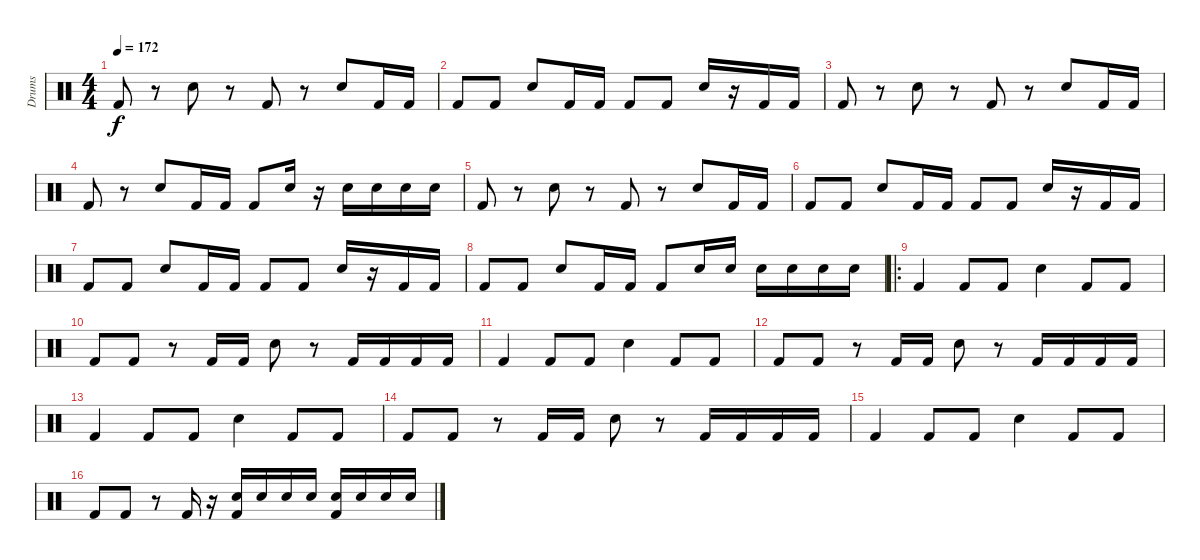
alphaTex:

\track ("Drums" "Drums") {instrument percussion}
\staff {score}
\articulation defaults
\ts (4 4)
\tempo 172
\clef neutral
\ks c "Kick (hit) 2".8{dy f}
r.8 "Snare (hit) 2".8 r.8 "Kick (hit) 2".8 r.8 "Snare (hit) 2".8 "Kick (hit) 2".16 "Kick (hit) 2".16 |
"Kick (hit) 2".8 "Kick (hit) 2".8 "Snare (hit) 2".8 "Kick (hit) 2".16 "Kick (hit) 2".16 "Kick (hit) 2".8 "Kick (hit) 2".8 "Snare (hit) 2".16 r.16 "Kick (hit) 2".16 "Kick (hit) 2".16 |
"Kick (hit) 2".8 r.8 "Snare (hit) 2".8 r.8 "Kick (hit) 2".8 r.8 "Snare (hit) 2".8 "Kick (hit) 2".16 "Kick (hit) 2".16 |
"Kick (hit) 2".8 r.8 "Snare (hit) 2".8 "Kick (hit) 2".16 "Kick (hit) 2".16 "Kick (hit) 2".8 "Snare (hit) 2".16 r.16 "Snare (hit) 2".16 "Snare (hit) 2".16 "Snare (hit) 2".16 "Snare (hit) 2".16 |
"Kick (hit) 2".8 r.8 "Snare (hit) 2".8 r.8 "Kick (hit) 2".8 r.8 "Snare (hit) 2".8 "Kick (hit) 2".16 "Kick (hit) 2".16 |
"Kick (hit) 2".8 "Kick (hit) 2".8 "Snare (hit) 2".8 "Kick (hit) 2".16 "Kick (hit) 2".16 "Kick (hit) 2".8 "Kick (hit) 2".8 "Snare (hit) 2".16 r.16 "Kick (hit) 2".16 "Kick (hit) 2".16 |
"Kick (hit) 2".8 "Kick (hit) 2".8 "Snare (hit) 2".8 "Kick (hit) 2".16 "Kick (hit) 2".16 "Kick (hit) 2".8 "Kick (hit) 2".8 "Snare (hit) 2".16 r.16 "Kick (hit) 2".16 "Kick (hit) 2".16 |
"Kick (hit) 2".8 "Kick (hit) 2".8 "Snare (hit) 2".8 "Kick (hit) 2".16 "Kick (hit) 2".16 "Kick (hit) 2".8 "Snare (hit) 2".16 "Snare (hit) 2".16 "Snare (hit) 2".16 "Snare (hit) 2".16 "Snare (hit) 2".16 "Snare (hit) 2".16 |
\ro "Kick (hit) 2".4 "Kick (hit) 2".8 "Kick (hit) 2".8 "Snare (hit) 2".4 "Kick (hit) 2".8 "Kick (hit) 2".8
|
"Kick (hit) 2".8 "Kick (hit) 2".8 r.8 "Kick (hit) 2".16 "Kick (hit) 2".16 "Snare (hit) 2".8 r.8 "Kick (hit) 2".16 "Kick (hit) 2".16 "Kick (hit) 2".16 "Kick (hit) 2".16 |
"Kick (hit) 2".4 "Kick (hit) 2".8 "Kick (hit) 2".8 "Snare (hit) 2".4 "Kick (hit) 2".8 "Kick (hit) 2".8 |
"Kick (hit) 2".8 "Kick (hit) 2".8 r.8 "Kick (hit) 2".16 "Kick (hit) 2".16 "Snare (hit) 2".8 r.8 "Kick (hit) 2".16 "Kick (hit) 2".16 "Kick (hit) 2".16 "Kick (hit) 2".16 |
"Kick (hit) 2".4 "Kick (hit) 2".8 "Kick (hit) 2".8 "Snare (hit) 2".4 "Kick (hit) 2".8 "Kick (hit) 2".8 |
"Kick (hit) 2".8 "Kick (hit) 2".8 r.8 "Kick (hit) 2".16 "Kick (hit) 2".16 "Snare (hit) 2".8 r.8 "Kick (hit) 2".16 "Kick (hit) 2".16 "Kick (hit) 2".16 "Kick (hit) 2".16 |
"Kick (hit) 2".4 "Kick (hit) 2".8 "Kick (hit) 2".8 "Snare (hit) 2".4 "Kick (hit) 2".8 "Kick (hit) 2".8 |
"Kick (hit) 2".8 "Kick (hit) 2".8 r.8 "Kick (hit) 2".16 r.16 ("Snare (hit) 2" "Kick (hit) 2").16 "Snare (hit) 2".16 "Snare (hit) 2".16 "Snare (hit) 2".16 ("Snare (hit) 2" "Kick (hit) 2").16 "Snare (hit) 2".16 "Snare (hit) 2".16 "Snare (hit) 2".16
